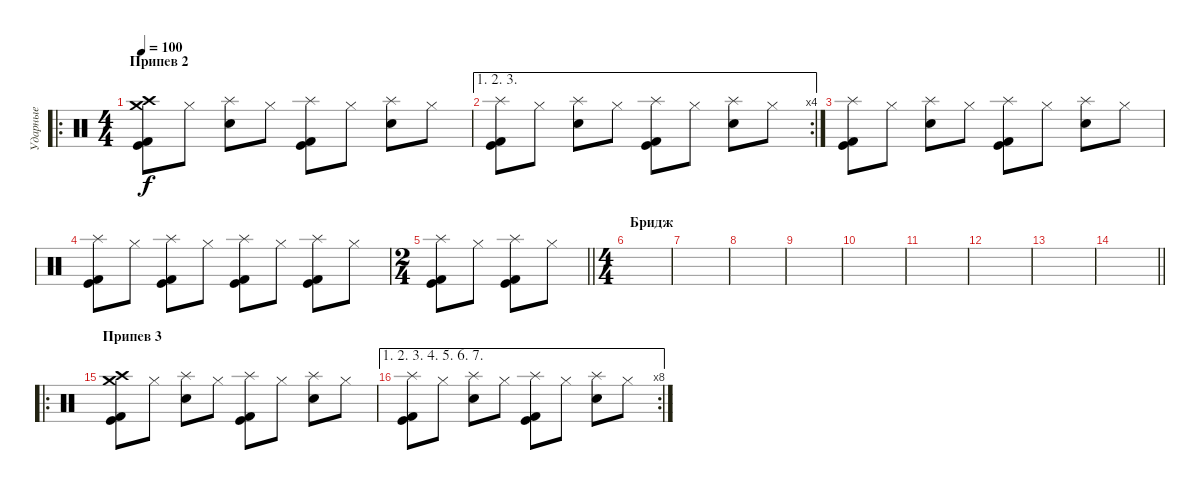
\track ("Ударные" "Ударные") {instrument percussion}
\staff {score}
\articulation defaults
\ro
\ts (4 4)
\section ("" "Припев 2")
\tempo 100
\clef neutral
\ks c
("Crash high (hit)" "Crash medium (hit)" "Kick (hit) 2" "Kick (hit)").8{dy f} "Hi-Hat (closed)".8 ("Splash (hit)" "Snare (hit) 2").8 "Hi-Hat (closed)".8 ("Splash (hit)" "Kick (hit) 2" "Kick (hit)").8 "Hi-Hat (closed)".8 ("Splash (hit)" "Snare (hit) 2").8 "Hi-Hat (closed)".8 |
\ae (1 2 3)
\rc 4
("Splash (hit)" "Kick (hit) 2" "Kick (hit)").8 "Hi-Hat (closed)".8 ("Splash (hit)" "Snare (hit) 2").8 "Hi-Hat (closed)".8 ("Splash (hit)" "Kick (hit) 2" "Kick (hit)").8 "Hi-Hat (closed)".8 ("Splash (hit)" "Snare (hit) 2").8 "Hi-Hat (closed)".8 |
("Splash (hit)" "Kick (hit) 2" "Kick (hit)").8 "Hi-Hat (closed)".8 ("Splash (hit)" "Snare (hit) 2").8 "Hi-Hat (closed)".8 ("Splash (hit)" "Kick (hit) 2" "Kick (hit)").8 "Hi-Hat (closed)".8 ("Splash (hit)" "Snare (hit) 2").8 "Hi-Hat (closed)".8 |
("Splash (hit)" "Kick (hit) 2" "Kick (hit)").8 "Hi-Hat (closed)".8 ("Splash (hit)" "Kick (hit) 2" "Kick (hit)").8 "Hi-Hat (closed)".8 ("Splash (hit)" "Kick (hit) 2" "Kick (hit)").8 "Hi-Hat (closed)".8 ("Splash (hit)" "Kick (hit) 2" "Kick (hit)").8 "Hi-Hat (closed)".8 |
\ts (2 4)
\barLineRight lightlight
("Splash (hit)" "Kick (hit) 2" "Kick (hit)").8 "Hi-Hat (closed)".8 ("Splash (hit)" "Kick (hit) 2" "Kick (hit)").8 "Hi-Hat (closed)".8 |
\ts (4 4)
\section ("" "Бридж")
|
|
|
|
|
|
|
|
\barLineRight lightlight
|
\ro
\section ("" "Припев 3")
("Crash high (hit)" "Crash medium (hit)" "Kick (hit) 2" "Kick (hit)").8 "Hi-Hat (closed)".8 ("Splash (hit)" "Snare (hit) 2").8 "Hi-Hat (closed)".8 ("Splash (hit)" "Kick (hit) 2" "Kick (hit)").8 "Hi-Hat (closed)".8 ("Splash (hit)" "Snare (hit) 2").8 "Hi-Hat (closed)".8 |
\ae (1 2 3 4 5 6 7)
\rc 8
("Splash (hit)" "Kick (hit) 2" "Kick (hit)").8 "Hi-Hat (closed)".8 ("Splash (hit)" "Snare (hit) 2").8 "Hi-Hat (closed)".8 ("Splash (hit)" "Kick (hit) 2" "Kick (hit)").8 "Hi-Hat (closed)".8 ("Splash (hit)" "Snare (hit) 2").8 "Hi-Hat (closed)".8
